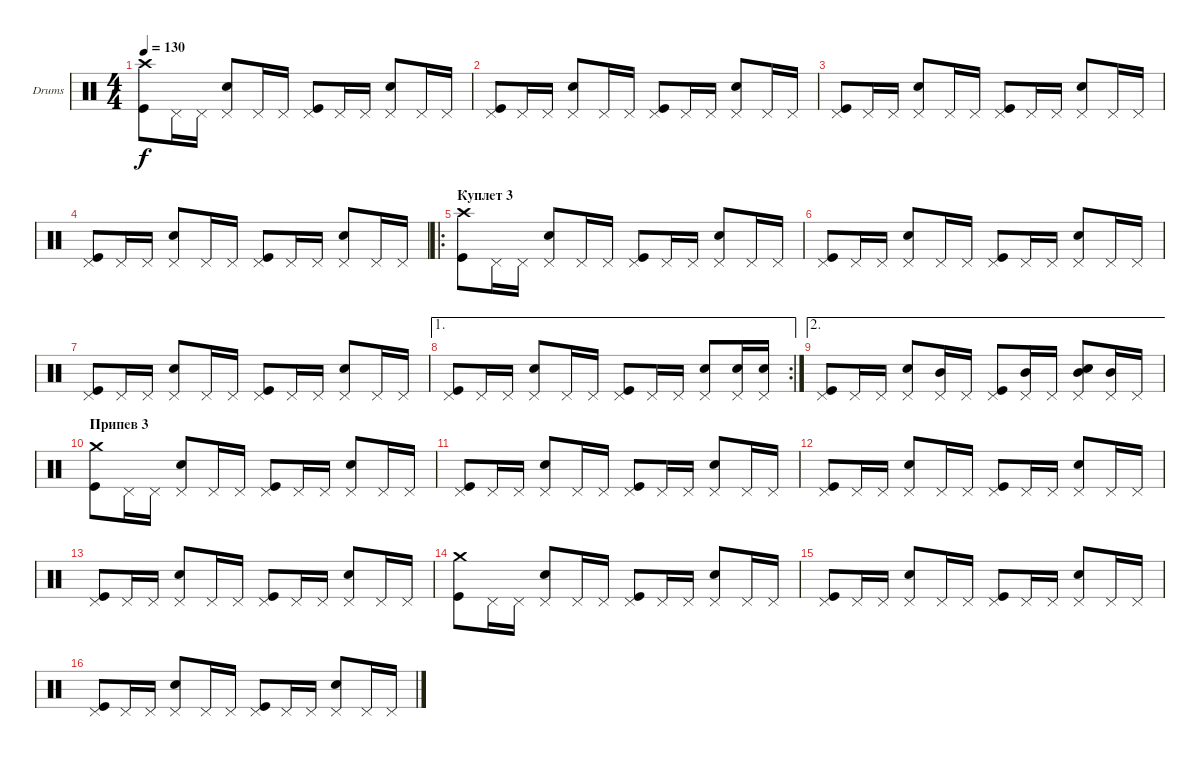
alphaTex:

\bracketExtendMode groupsimilarinstruments
\firstSystemTrackNameOrientation horizontal
\otherSystemsTrackNameOrientation horizontal
\track ("Drumkit" "Drums") {instrument percussion}
\staff {score}
\articulation defaults
\ts (4 4)
\tempo 130
\clef neutral
\ks c
("Crash high (hit)" "Kick (hit)").8{dy f} "Pedal Hi-Hat (hit)".16 "Pedal Hi-Hat (hit)".16 ("Pedal Hi-Hat (hit)" "Snare (hit) 2").8 "Pedal Hi-Hat (hit)".16 "Pedal Hi-Hat (hit)".16 ("Pedal Hi-Hat (hit)" "Kick (hit)").8 "Pedal Hi-Hat (hit)".16 "Pedal Hi-Hat (hit)".16 ("Pedal Hi-Hat (hit)" "Snare (hit) 2").8 "Pedal Hi-Hat (hit)".16 "Pedal Hi-Hat (hit)".16 |
("Pedal Hi-Hat (hit)" "Kick (hit)").8 "Pedal Hi-Hat (hit)".16 "Pedal Hi-Hat (hit)".16 ("Pedal Hi-Hat (hit)" "Snare (hit) 2").8 "Pedal Hi-Hat (hit)".16 "Pedal Hi-Hat (hit)".16 ("Pedal Hi-Hat (hit)" "Kick (hit)").8 "Pedal Hi-Hat (hit)".16 "Pedal Hi-Hat (hit)".16 ("Pedal Hi-Hat (hit)" "Snare (hit) 2").8 "Pedal Hi-Hat (hit)".16 "Pedal Hi-Hat (hit)".16 |
("Pedal Hi-Hat (hit)" "Kick (hit)").8 "Pedal Hi-Hat (hit)".16 "Pedal Hi-Hat (hit)".16 ("Pedal Hi-Hat (hit)" "Snare (hit) 2").8 "Pedal Hi-Hat (hit)".16 "Pedal Hi-Hat (hit)".16 ("Pedal Hi-Hat (hit)" "Kick (hit)").8 "Pedal Hi-Hat (hit)".16 "Pedal Hi-Hat (hit)".16 ("Pedal Hi-Hat (hit)" "Snare (hit) 2").8 "Pedal Hi-Hat (hit)".16 "Pedal Hi-Hat (hit)".16 |
("Pedal Hi-Hat (hit)" "Kick (hit)").8 "Pedal Hi-Hat (hit)".16 "Pedal Hi-Hat (hit)".16 ("Pedal Hi-Hat (hit)" "Snare (hit) 2").8 "Pedal Hi-Hat (hit)".16 "Pedal Hi-Hat (hit)".16 ("Pedal Hi-Hat (hit)" "Kick (hit)").8 "Pedal Hi-Hat (hit)".16 "Pedal Hi-Hat (hit)".16 ("Pedal Hi-Hat (hit)" "Snare (hit) 2").8 "Pedal Hi-Hat (hit)".16 "Pedal Hi-Hat (hit)".16 |
\ro
\section ("" "Куплет 3")
("Crash high (hit)" "Kick (hit)").8 "Pedal Hi-Hat (hit)".16 "Pedal Hi-Hat (hit)".16 ("Pedal Hi-Hat (hit)" "Snare (hit) 2").8 "Pedal Hi-Hat (hit)".16 "Pedal Hi-Hat (hit)".16 ("Pedal Hi-Hat (hit)" "Kick (hit)").8 "Pedal Hi-Hat (hit)".16 "Pedal Hi-Hat (hit)".16 ("Pedal Hi-Hat (hit)" "Snare (hit) 2").8 "Pedal Hi-Hat (hit)".16 "Pedal Hi-Hat (hit)".16 |
("Pedal Hi-Hat (hit)" "Kick (hit)").8 "Pedal Hi-Hat (hit)".16 "Pedal Hi-Hat (hit)".16 ("Pedal Hi-Hat (hit)" "Snare (hit) 2").8 "Pedal Hi-Hat (hit)".16 "Pedal Hi-Hat (hit)".16 ("Pedal Hi-Hat (hit)" "Kick (hit)").8 "Pedal Hi-Hat (hit)".16 "Pedal Hi-Hat (hit)".16 ("Pedal Hi-Hat (hit)" "Snare (hit) 2").8 "Pedal Hi-Hat (hit)".16 "Pedal Hi-Hat (hit)".16 |
("Pedal Hi-Hat (hit)" "Kick (hit)").8 "Pedal Hi-Hat (hit)".16 "Pedal Hi-Hat (hit)".16 ("Pedal Hi-Hat (hit)" "Snare (hit) 2").8 "Pedal Hi-Hat (hit)".16 "Pedal Hi-Hat (hit)".16 ("Pedal Hi-Hat (hit)" "Kick (hit)").8 "Pedal Hi-Hat (hit)".16 "Pedal Hi-Hat (hit)".16 ("Pedal Hi-Hat (hit)" "Snare (hit) 2").8 "Pedal Hi-Hat (hit)".16 "Pedal Hi-Hat (hit)".16 |
\ae 1
\rc 2
("Pedal Hi-Hat (hit)" "Kick (hit)").8 "Pedal Hi-Hat (hit)".16 "Pedal Hi-Hat (hit)".16 ("Pedal Hi-Hat (hit)" "Snare (hit) 2").8 "Pedal Hi-Hat (hit)".16 "Pedal Hi-Hat (hit)".16 ("Pedal Hi-Hat (hit)" "Kick (hit)").8 "Pedal Hi-Hat (hit)".16 "Pedal Hi-Hat (hit)".16 ("Pedal Hi-Hat (hit)" "Snare (hit) 2").8 ("Pedal Hi-Hat (hit)" "Snare (hit) 2").16 ("Pedal Hi-Hat (hit)" "Snare (hit) 2").16 |
\ae 2
("Pedal Hi-Hat (hit)" "Kick (hit)").8 "Pedal Hi-Hat (hit)".16 "Pedal Hi-Hat (hit)".16 ("Pedal Hi-Hat (hit)" "Snare (hit) 2").8 ("Pedal Hi-Hat (hit)" "Mid Tom (hit)").16 "Pedal Hi-Hat (hit)".16 ("Pedal Hi-Hat (hit)" "Kick (hit)").8 ("Pedal Hi-Hat (hit)" "Mid Tom (hit)").16 "Pedal Hi-Hat (hit)".16 ("Pedal Hi-Hat (hit)" "Snare (hit) 2" "Mid Tom (hit)").8 ("Pedal Hi-Hat (hit)" "Mid Tom (hit)").16 "Pedal Hi-Hat (hit)".16 |
\section ("" "Припев 3")
("Crash medium (hit)" "Kick (hit)").8 "Pedal Hi-Hat (hit)".16 "Pedal Hi-Hat (hit)".16 ("Pedal Hi-Hat (hit)" "Snare (hit) 2").8 "Pedal Hi-Hat (hit)".16 "Pedal Hi-Hat (hit)".16 ("Pedal Hi-Hat (hit)" "Kick (hit)").8 "Pedal Hi-Hat (hit)".16 "Pedal Hi-Hat (hit)".16 ("Pedal Hi-Hat (hit)" "Snare (hit) 2").8 "Pedal Hi-Hat (hit)".16 "Pedal Hi-Hat (hit)".16 |
("Pedal Hi-Hat (hit)" "Kick (hit)").8 "Pedal Hi-Hat (hit)".16 "Pedal Hi-Hat (hit)".16 ("Pedal Hi-Hat (hit)" "Snare (hit) 2").8 "Pedal Hi-Hat (hit)".16 "Pedal Hi-Hat (hit)".16 ("Pedal Hi-Hat (hit)" "Kick (hit)").8 "Pedal Hi-Hat (hit)".16 "Pedal Hi-Hat (hit)".16 ("Pedal Hi-Hat (hit)" "Snare (hit) 2").8 "Pedal Hi-Hat (hit)".16 "Pedal Hi-Hat (hit)".16 |
("Pedal Hi-Hat (hit)" "Kick (hit)").8 "Pedal Hi-Hat (hit)".16 "Pedal Hi-Hat (hit)".16 ("Pedal Hi-Hat (hit)" "Snare (hit) 2").8 "Pedal Hi-Hat (hit)".16 "Pedal Hi-Hat (hit)".16 ("Pedal Hi-Hat (hit)" "Kick (hit)").8 "Pedal Hi-Hat (hit)".16 "Pedal Hi-Hat (hit)".16 ("Pedal Hi-Hat (hit)" "Snare (hit) 2").8 "Pedal Hi-Hat (hit)".16 "Pedal Hi-Hat (hit)".16 |
("Pedal Hi-Hat (hit)" "Kick (hit)").8 "Pedal Hi-Hat (hit)".16 "Pedal Hi-Hat (hit)".16 ("Pedal Hi-Hat (hit)" "Snare (hit) 2").8 "Pedal Hi-Hat (hit)".16 "Pedal Hi-Hat (hit)".16 ("Pedal Hi-Hat (hit)" "Kick (hit)").8 "Pedal Hi-Hat (hit)".16 "Pedal Hi-Hat (hit)".16 ("Pedal Hi-Hat (hit)" "Snare (hit) 2").8 "Pedal Hi-Hat (hit)".16 "Pedal Hi-Hat (hit)".16 |
("Crash medium (hit)" "Kick (hit)").8 "Pedal Hi-Hat (hit)".16 "Pedal Hi-Hat (hit)".16 ("Pedal Hi-Hat (hit)" "Snare (hit) 2").8 "Pedal Hi-Hat (hit)".16 "Pedal Hi-Hat (hit)".16 ("Pedal Hi-Hat (hit)" "Kick (hit)").8 "Pedal Hi-Hat (hit)".16 "Pedal Hi-Hat (hit)".16 ("Pedal Hi-Hat (hit)" "Snare (hit) 2").8 "Pedal Hi-Hat (hit)".16 "Pedal Hi-Hat (hit)".16 |
("Pedal Hi-Hat (hit)" "Kick (hit)").8 "Pedal Hi-Hat (hit)".16 "Pedal Hi-Hat (hit)".16 ("Pedal Hi-Hat (hit)" "Snare (hit) 2").8 "Pedal Hi-Hat (hit)".16 "Pedal Hi-Hat (hit)".16 ("Pedal Hi-Hat (hit)" "Kick (hit)").8 "Pedal Hi-Hat (hit)".16 "Pedal Hi-Hat (hit)".16 ("Pedal Hi-Hat (hit)" "Snare (hit) 2").8 "Pedal Hi-Hat (hit)".16 "Pedal Hi-Hat (hit)".16 |
("Pedal Hi-Hat (hit)" "Kick (hit)").8 "Pedal Hi-Hat (hit)".16 "Pedal Hi-Hat (hit)".16 ("Pedal Hi-Hat (hit)" "Snare (hit) 2").8 "Pedal Hi-Hat (hit)".16 "Pedal Hi-Hat (hit)".16 ("Pedal Hi-Hat (hit)" "Kick (hit)").8 "Pedal Hi-Hat (hit)".16 "Pedal Hi-Hat (hit)".16 ("Pedal Hi-Hat (hit)" "Snare (hit) 2").8 "Pedal Hi-Hat (hit)".16 "Pedal Hi-Hat (hit)".16
